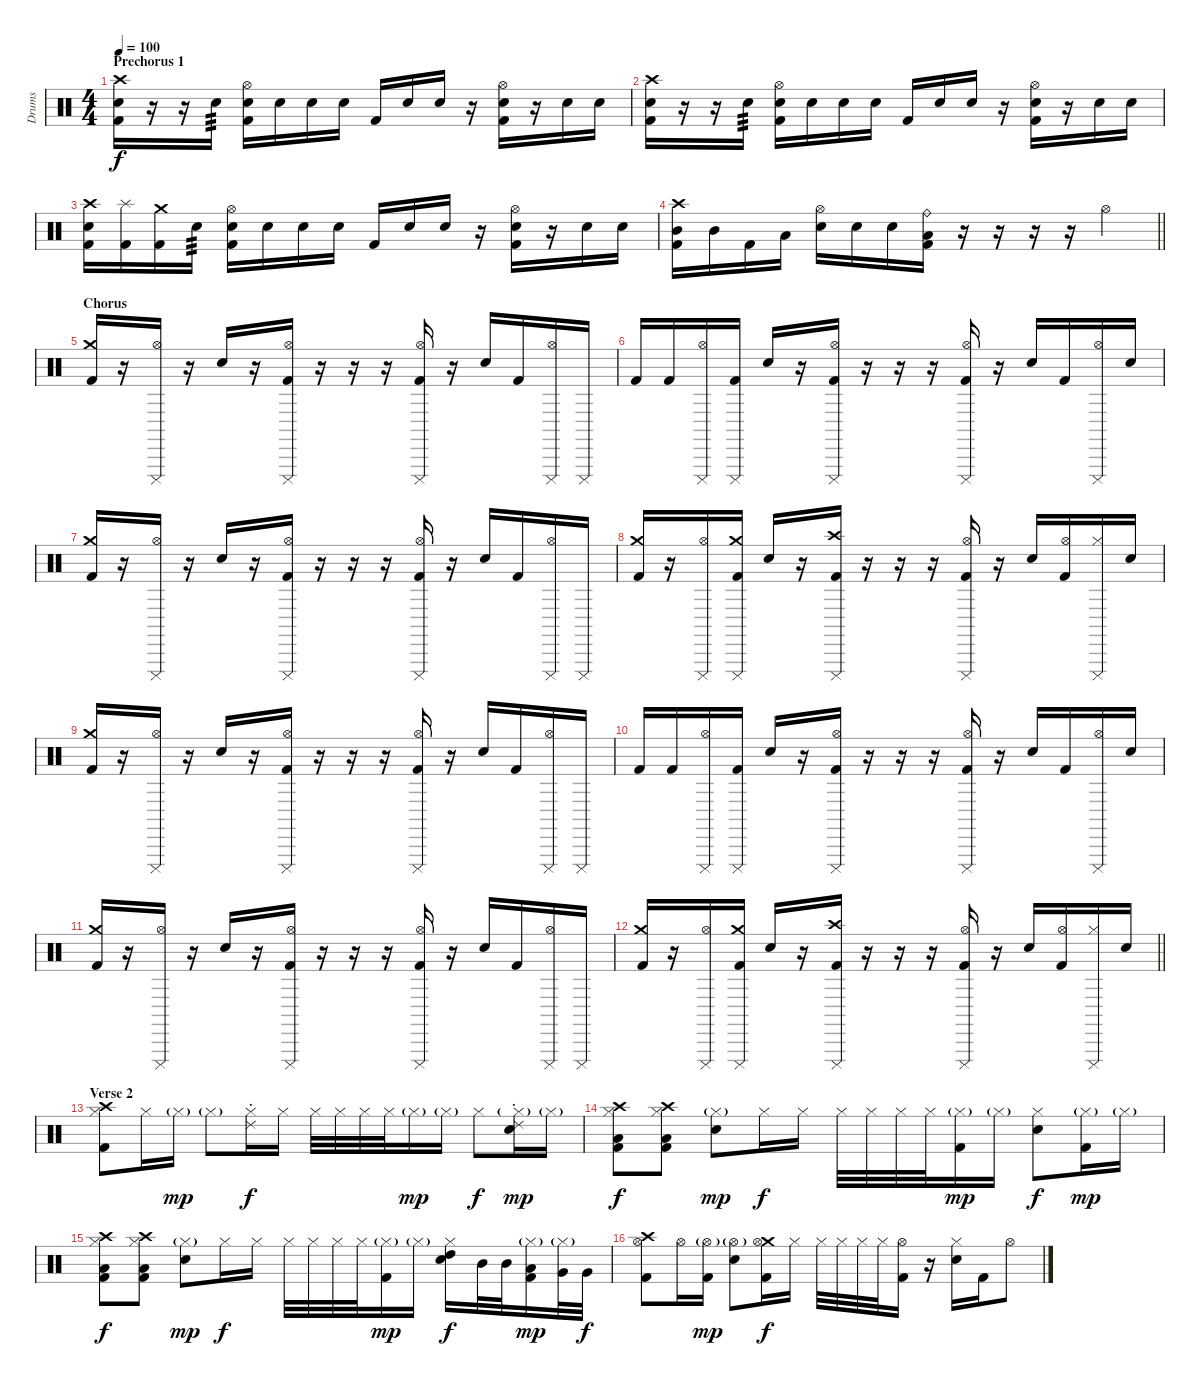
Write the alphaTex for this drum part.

\track ("Drums" "Drums") {instrument percussion}
\staff {score}
\articulation defaults
\ts (4 4)
\section ("" "Prechorus 1")
\tempo 100
\clef neutral
\ks c
("Crash high (hit)" "Electric Snare (hit)" "Kick (hit) 2").16{dy f} r.16 r.16 "Electric Snare (hit)".16{tp 3} ("Hi-Hat (open)" "Electric Snare (hit)" "Kick (hit) 2").16 "Electric Snare (hit)".16 "Electric Snare (hit)".16 "Electric Snare (hit)".16 "Kick (hit) 2".16 "Electric Snare (hit)".16 "Electric Snare (hit)".16 r.16 ("Hi-Hat (open)" "Electric Snare (hit)" "Kick (hit) 2").16 r.16 "Electric Snare (hit)".16 "Electric Snare (hit)".16 |
("Crash high (hit)" "Electric Snare (hit)" "Kick (hit) 2").16 r.16 r.16 "Electric Snare (hit)".16{tp 3} ("Hi-Hat (open)" "Electric Snare (hit)" "Kick (hit) 2").16 "Electric Snare (hit)".16 "Electric Snare (hit)".16 "Electric Snare (hit)".16 "Kick (hit) 2".16 "Electric Snare (hit)".16 "Electric Snare (hit)".16 r.16 ("Hi-Hat (open)" "Electric Snare (hit)" "Kick (hit) 2").16 r.16 "Electric Snare (hit)".16 "Electric Snare (hit)".16 |
("Crash high (hit)" "Electric Snare (hit)" "Kick (hit) 2").16 ("Splash (hit)" "Kick (hit) 2").16 ("Crash medium (hit)" "Kick (hit) 2").16 "Electric Snare (hit)".16{tp 3} ("Hi-Hat (open)" "Electric Snare (hit)" "Kick (hit) 2").16 "Electric Snare (hit)".16 "Electric Snare (hit)".16 "Electric Snare (hit)".16 "Kick (hit) 2".16 "Electric Snare (hit)".16 "Electric Snare (hit)".16 r.16 ("Hi-Hat (open)" "Electric Snare (hit)" "Kick (hit) 2").16 r.16 "Electric Snare (hit)".16 "Electric Snare (hit)".16 |
\barLineRight lightlight
("Crash high (hit)" "Mid Tom (hit)" "Kick (hit) 2").16 "Mid Tom (hit)".16 "Kick (hit) 2".16 "Low Tom (hit)".16 ("Hi-Hat (open)" "Snare (hit) 2").16 "Snare (hit) 2".16 "Snare (hit) 2".16 ("Ride (bell)" "Low Floor Tom (hit)" "Kick (hit) 2").16 r.16 r.16 r.16 r.16 "Hi-Hat (open)".4 |
\section ("" "Chorus")
("Crash medium (hit)" "Kick (hit) 2").16 r.16 ("Cuica (mute)" "Hi-Hat (open)").16 r.16 "Snare (hit) 2".16 r.16 ("Cuica (mute)" "Hi-Hat (open)" "Kick (hit) 2").16 r.16 r.16 r.16 ("Cuica (mute)" "Hi-Hat (open)" "Kick (hit) 2").16 r.16 "Snare (hit) 2".16 "Kick (hit) 2".16 ("Cuica (mute)" "Hi-Hat (open)").16 "Cuica (mute)".16 |
"Kick (hit) 2".16 "Kick (hit) 2".16 ("Cuica (mute)" "Hi-Hat (open)").16 ("Cuica (mute)" "Kick (hit) 2").16 "Snare (hit) 2".16 r.16 ("Cuica (mute)" "Hi-Hat (open)" "Kick (hit) 2").16 r.16 r.16 r.16 ("Cuica (mute)" "Hi-Hat (open)" "Kick (hit) 2").16 r.16 "Snare (hit) 2".16 "Kick (hit) 2".16 ("Cuica (mute)" "Hi-Hat (open)").16 "Snare (hit) 2".16 |
("Crash medium (hit)" "Kick (hit) 2").16 r.16 ("Cuica (mute)" "Hi-Hat (open)").16 r.16 "Snare (hit) 2".16 r.16 ("Cuica (mute)" "Hi-Hat (open)" "Kick (hit) 2").16 r.16 r.16 r.16 ("Cuica (mute)" "Hi-Hat (open)" "Kick (hit) 2").16 r.16 "Snare (hit) 2".16 "Kick (hit) 2".16 ("Cuica (mute)" "Hi-Hat (open)").16 "Cuica (mute)".16 |
("Crash medium (hit)" "Kick (hit) 2").16 r.16 ("Cuica (mute)" "Hi-Hat (open)").16 ("Cuica (mute)" "Crash medium (hit)" "Kick (hit) 2").16 "Snare (hit) 2".16 r.16 ("Cuica (mute)" "Crash high (hit)" "Kick (hit) 2").16 r.16 r.16 r.16 ("Cuica (mute)" "Hi-Hat (open)" "Kick (hit) 2").16 r.16 "Snare (hit) 2".16 ("Hi-Hat (open)" "Kick (hit) 2").16 ("Cuica (mute)" "Hi-Hat (closed)").16 "Snare (hit) 2".16 |
("Crash medium (hit)" "Kick (hit) 2").16 r.16 ("Cuica (mute)" "Hi-Hat (open)").16 r.16 "Snare (hit) 2".16 r.16 ("Cuica (mute)" "Hi-Hat (open)" "Kick (hit) 2").16 r.16 r.16 r.16 ("Cuica (mute)" "Hi-Hat (open)" "Kick (hit) 2").16 r.16 "Snare (hit) 2".16 "Kick (hit) 2".16 ("Cuica (mute)" "Hi-Hat (open)").16 "Cuica (mute)".16 |
"Kick (hit) 2".16 "Kick (hit) 2".16 ("Cuica (mute)" "Hi-Hat (open)").16 ("Cuica (mute)" "Kick (hit) 2").16 "Snare (hit) 2".16 r.16 ("Cuica (mute)" "Hi-Hat (open)" "Kick (hit) 2").16 r.16 r.16 r.16 ("Cuica (mute)" "Hi-Hat (open)" "Kick (hit) 2").16 r.16 "Snare (hit) 2".16 "Kick (hit) 2".16 ("Cuica (mute)" "Hi-Hat (open)").16 "Snare (hit) 2".16 |
("Crash medium (hit)" "Kick (hit) 2").16 r.16 ("Cuica (mute)" "Hi-Hat (open)").16 r.16 "Snare (hit) 2".16 r.16 ("Cuica (mute)" "Hi-Hat (open)" "Kick (hit) 2").16 r.16 r.16 r.16 ("Cuica (mute)" "Hi-Hat (open)" "Kick (hit) 2").16 r.16 "Snare (hit) 2".16 "Kick (hit) 2".16 ("Cuica (mute)" "Hi-Hat (open)").16 "Cuica (mute)".16 |
\barLineRight lightlight
("Crash medium (hit)" "Kick (hit) 2").16 r.16 ("Cuica (mute)" "Hi-Hat (open)").16 ("Cuica (mute)" "Crash medium (hit)" "Kick (hit) 2").16 "Snare (hit) 2".16 r.16 ("Cuica (mute)" "Crash high (hit)" "Kick (hit) 2").16 r.16 r.16 r.16 ("Cuica (mute)" "Hi-Hat (open)" "Kick (hit) 2").16 r.16 "Snare (hit) 2".16 ("Hi-Hat (open)" "Kick (hit) 2").16 ("Cuica (mute)" "Hi-Hat (closed)").16 "Snare (hit) 2".16 |
\section ("" "Verse 2")
("Crash high (hit)" "Hi-Hat (closed)" "Kick (hit) 2").8 "Hi-Hat (closed)".16 "Hi-Hat (closed)"{g}.16{dy mp} "Hi-Hat (closed)"{g}.8 ("Hi-Hat (closed)" "Ride (choke) 2").16{dy f} "Hi-Hat (closed)".16 "Hi-Hat (closed)".32 "Hi-Hat (closed)".32 "Hi-Hat (closed)".32 "Hi-Hat (closed)".32 "Hi-Hat (closed)"{g}.16{dy mp} "Hi-Hat (closed)"{g}.16 "Hi-Hat (closed)".8{dy f} ("Hi-Hat (closed)"{g} "Snare (hit) 2" "Ride (choke) 2").16{dy mp} "Hi-Hat (closed)"{g}.16 |
("Crash high (hit)" "Hi-Hat (closed)" "Low Floor Tom (hit)" "Kick (hit) 2").8{dy f} ("Crash high (hit)" "Hi-Hat (closed)" "Low Floor Tom (hit)" "Kick (hit) 2").8 ("Hi-Hat (closed)"{g} "Snare (hit) 2").8{dy mp} "Hi-Hat (closed)".16{dy f} "Hi-Hat (closed)".16 "Hi-Hat (closed)".32 "Hi-Hat (closed)".32 "Hi-Hat (closed)".32 "Hi-Hat (closed)".32 ("Hi-Hat (closed)"{g} "Kick (hit) 2").16{dy mp} "Hi-Hat (closed)"{g}.16 ("Hi-Hat (closed)" "Snare (hit) 2").8{dy f} ("Hi-Hat (closed)"{g} "Kick (hit) 2").16{dy mp} "Hi-Hat (closed)"{g}.16 |
("Crash high (hit)" "Hi-Hat (closed)" "Low Floor Tom (hit)" "Kick (hit) 2").8{dy f} ("Crash high (hit)" "Hi-Hat (closed)" "Low Floor Tom (hit)" "Kick (hit) 2").8 ("Hi-Hat (closed)"{g} "Snare (hit) 2").8{dy mp} "Hi-Hat (closed)".16{dy f} "Hi-Hat (closed)".16 "Hi-Hat (closed)".32 "Hi-Hat (closed)".32 "Hi-Hat (closed)".32 "Hi-Hat (closed)".32 ("Hi-Hat (closed)"{g} "Kick (hit) 2").16{dy mp} "Hi-Hat (closed)"{g}.16 ("Hi-Hat (closed)" "High Tom (hit)" "Snare (hit) 2").16{dy f} "Mid Tom (hit)".32 "Mid Tom (hit)".32 ("Hi-Hat (closed)"{g} "Low Tom (hit)" "Kick (hit) 2").16{dy mp} ("Hi-Hat (closed)"{g} "Very Low Tom (hit)").32 "Very Low Tom (hit)".32{dy f} |
("Crash high (hit)" "Hi-Hat (open)" "Kick (hit) 2").8 "Hi-Hat (open)".16 ("Hi-Hat (open)"{g} "Kick (hit) 2").16{dy mp} ("Hi-Hat (open)"{g} "Snare (hit) 2").8 ("Crash medium (hit)" "Hi-Hat (open)" "Kick (hit) 2").16{dy f} "Hi-Hat (closed)".16 "Hi-Hat (closed)".32 "Hi-Hat (closed)".32 "Hi-Hat (closed)".32 "Hi-Hat (closed)".32 ("Hi-Hat (open)" "Kick (hit) 2").16 r.16 ("Hi-Hat (closed)" "Snare (hit) 2").16 "Kick (hit) 2".16 "Hi-Hat (open)".8
